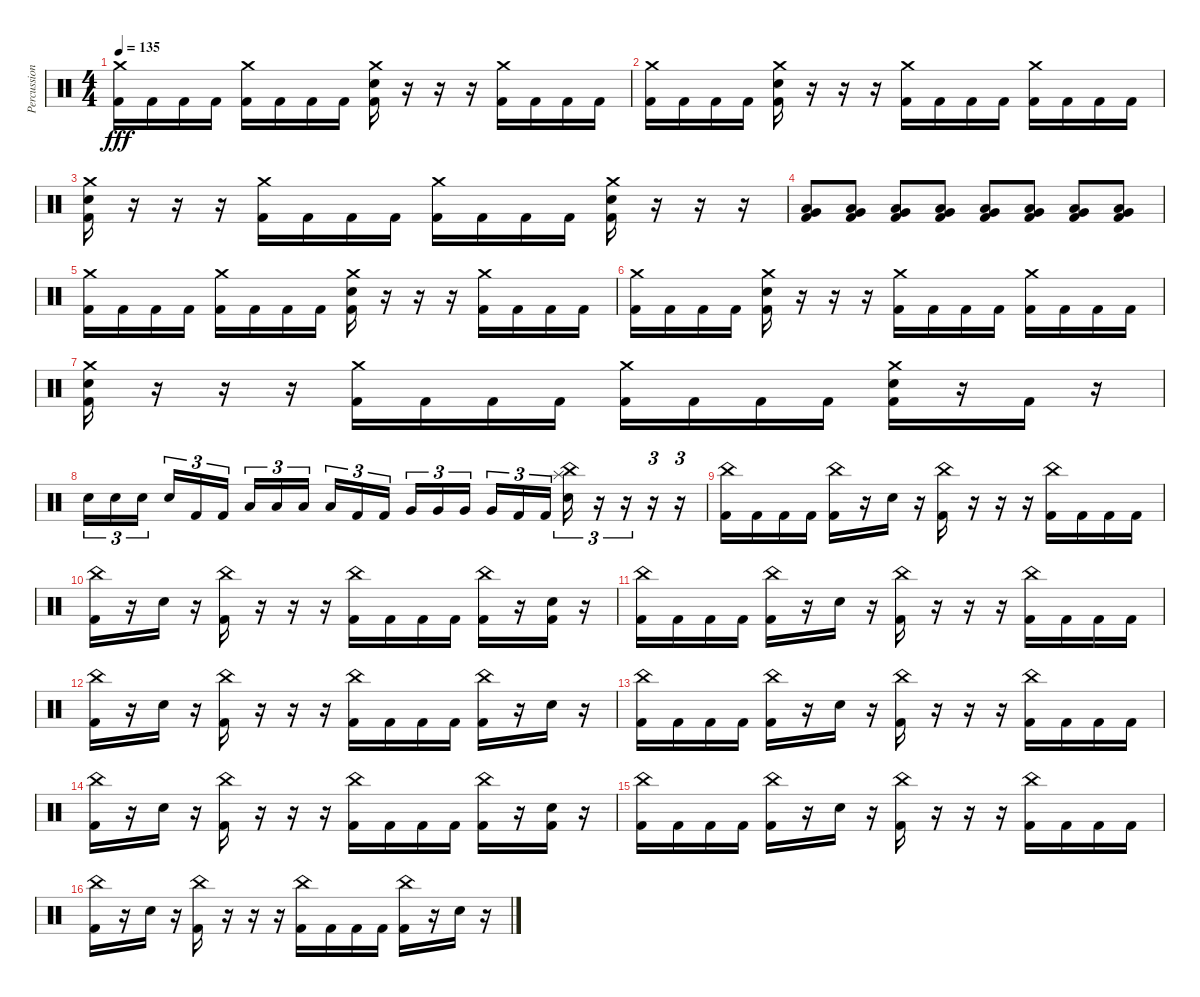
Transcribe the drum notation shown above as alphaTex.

\track ("Percussion" "Percussion") {instrument percussion}
\staff {score}
\articulation defaults
\ts (4 4)
\tempo 135
\clef neutral
\ks c
("Crash medium (hit)" "Kick (hit) 2").16{dy fff} "Kick (hit) 2".16 "Kick (hit) 2".16 "Kick (hit) 2".16 ("Crash medium (hit)" "Kick (hit) 2").16 "Kick (hit) 2".16 "Kick (hit) 2".16 "Kick (hit) 2".16 ("Crash medium (hit)" "Snare (hit) 2" "Kick (hit) 2").16 r.16 r.16 r.16 ("Crash medium (hit)" "Kick (hit) 2").16 "Kick (hit) 2".16 "Kick (hit) 2".16 "Kick (hit) 2".16 |
("Crash medium (hit)" "Kick (hit) 2").16 "Kick (hit) 2".16 "Kick (hit) 2".16 "Kick (hit) 2".16 ("Crash medium (hit)" "Snare (hit) 2" "Kick (hit) 2").16 r.16 r.16 r.16 ("Crash medium (hit)" "Kick (hit) 2").16 "Kick (hit) 2".16 "Kick (hit) 2".16 "Kick (hit) 2".16 ("Crash medium (hit)" "Kick (hit) 2").16 "Kick (hit) 2".16 "Kick (hit) 2".16 "Kick (hit) 2".16 |
("Crash medium (hit)" "Snare (hit) 2" "Kick (hit) 2").16 r.16 r.16 r.16 ("Crash medium (hit)" "Kick (hit) 2").16 "Kick (hit) 2".16 "Kick (hit) 2".16 "Kick (hit) 2".16 ("Crash medium (hit)" "Kick (hit) 2").16 "Kick (hit) 2".16 "Kick (hit) 2".16 "Kick (hit) 2".16 ("Crash medium (hit)" "Snare (hit) 2" "Kick (hit) 2").16 r.16 r.16 r.16 |
("Very Low Tom (hit)" "Low Floor Tom (hit)" "Kick (hit) 2").8 ("Very Low Tom (hit)" "Low Floor Tom (hit)" "Kick (hit) 2").8 ("Very Low Tom (hit)" "Low Floor Tom (hit)" "Kick (hit) 2").8 ("Very Low Tom (hit)" "Low Floor Tom (hit)" "Kick (hit) 2").8 ("Very Low Tom (hit)" "Low Floor Tom (hit)" "Kick (hit) 2").8 ("Very Low Tom (hit)" "Low Floor Tom (hit)" "Kick (hit) 2").8 ("Very Low Tom (hit)" "Low Floor Tom (hit)" "Kick (hit) 2").8 ("Very Low Tom (hit)" "Low Floor Tom (hit)" "Kick (hit) 2").8 |
("Crash medium (hit)" "Kick (hit) 2").16 "Kick (hit) 2".16 "Kick (hit) 2".16 "Kick (hit) 2".16 ("Crash medium (hit)" "Kick (hit) 2").16 "Kick (hit) 2".16 "Kick (hit) 2".16 "Kick (hit) 2".16 ("Crash medium (hit)" "Snare (hit) 2" "Kick (hit) 2").16 r.16 r.16 r.16 ("Crash medium (hit)" "Kick (hit) 2").16 "Kick (hit) 2".16 "Kick (hit) 2".16 "Kick (hit) 2".16 |
("Crash medium (hit)" "Kick (hit) 2").16 "Kick (hit) 2".16 "Kick (hit) 2".16 "Kick (hit) 2".16 ("Crash medium (hit)" "Snare (hit) 2" "Kick (hit) 2").16 r.16 r.16 r.16 ("Crash medium (hit)" "Kick (hit) 2").16 "Kick (hit) 2".16 "Kick (hit) 2".16 "Kick (hit) 2".16 ("Crash medium (hit)" "Kick (hit) 2").16 "Kick (hit) 2".16 "Kick (hit) 2".16 "Kick (hit) 2".16 |
("Crash medium (hit)" "Snare (hit) 2" "Kick (hit) 2").16 r.16 r.16 r.16 ("Crash medium (hit)" "Kick (hit) 2").16 "Kick (hit) 2".16 "Kick (hit) 2".16 "Kick (hit) 2".16 ("Crash medium (hit)" "Kick (hit) 2").16 "Kick (hit) 2".16 "Kick (hit) 2".16 "Kick (hit) 2".16 ("Crash medium (hit)" "Snare (hit) 2" "Kick (hit) 2").16 r.16 "Kick (hit) 2".16 r.16 |
"Snare (hit) 2".16{tu (3 2)} "Snare (hit) 2".16{tu (3 2)} "Snare (hit) 2".16{tu (3 2) beam splitsecondary} "Snare (hit) 2".16{tu (3 2)} "Kick (hit) 2".16{tu (3 2)} "Kick (hit) 2".16{tu (3 2)} "Low Tom (hit)".16{tu (3 2)} "Low Tom (hit)".16{tu (3 2)} "Low Tom (hit)".16{tu (3 2) beam splitsecondary} "Low Tom (hit)".16{tu (3 2)} "Kick (hit) 2".16{tu (3 2)} "Kick (hit) 2".16{tu (3 2)} "Very Low Tom (hit)".16{tu (3 2)} "Very Low Tom (hit)".16{tu (3 2)} "Very Low Tom (hit)".16{tu (3 2) beam splitsecondary} "Very Low Tom (hit)".16{tu (3 2)} "Kick (hit) 2".16{tu (3 2)} "Kick (hit) 2".16{tu (3 2)} ("China (hit)" "Splash (hit)" "Snare (hit) 2").16{tu (3 2)} r.16{tu (3 2)} r.16{tu (3 2)} r.16{tu (3 2)} r.16{tu (3 2)} |
("China (hit)" "Kick (hit) 2").16 "Kick (hit) 2".16 "Kick (hit) 2".16 "Kick (hit) 2".16 ("China (hit)" "Kick (hit) 2").16 r.16 "Snare (hit) 2".16 r.16 ("China (hit)" "Kick (hit) 2").16 r.16 r.16 r.16 ("China (hit)" "Kick (hit) 2").16 "Kick (hit) 2".16 "Kick (hit) 2".16 "Kick (hit) 2".16 |
("China (hit)" "Kick (hit) 2").16 r.16 "Snare (hit) 2".16 r.16 ("China (hit)" "Kick (hit) 2").16 r.16 r.16 r.16 ("China (hit)" "Kick (hit) 2").16 "Kick (hit) 2".16 "Kick (hit) 2".16 "Kick (hit) 2".16 ("China (hit)" "Kick (hit) 2").16 r.16 ("Snare (hit) 2" "Kick (hit) 2").16 r.16 |
("China (hit)" "Kick (hit) 2").16 "Kick (hit) 2".16 "Kick (hit) 2".16 "Kick (hit) 2".16 ("China (hit)" "Kick (hit) 2").16 r.16 "Snare (hit) 2".16 r.16 ("China (hit)" "Kick (hit) 2").16 r.16 r.16 r.16 ("China (hit)" "Kick (hit) 2").16 "Kick (hit) 2".16 "Kick (hit) 2".16 "Kick (hit) 2".16 |
("China (hit)" "Kick (hit) 2").16 r.16 "Snare (hit) 2".16 r.16 ("China (hit)" "Kick (hit) 2").16 r.16 r.16 r.16 ("China (hit)" "Kick (hit) 2").16 "Kick (hit) 2".16 "Kick (hit) 2".16 "Kick (hit) 2".16 ("China (hit)" "Kick (hit) 2").16 r.16 "Snare (hit) 2".16 r.16 |
("China (hit)" "Kick (hit) 2").16 "Kick (hit) 2".16 "Kick (hit) 2".16 "Kick (hit) 2".16 ("China (hit)" "Kick (hit) 2").16 r.16 "Snare (hit) 2".16 r.16 ("China (hit)" "Kick (hit) 2").16 r.16 r.16 r.16 ("China (hit)" "Kick (hit) 2").16 "Kick (hit) 2".16 "Kick (hit) 2".16 "Kick (hit) 2".16 |
("China (hit)" "Kick (hit) 2").16 r.16 "Snare (hit) 2".16 r.16 ("China (hit)" "Kick (hit) 2").16 r.16 r.16 r.16 ("China (hit)" "Kick (hit) 2").16 "Kick (hit) 2".16 "Kick (hit) 2".16 "Kick (hit) 2".16 ("China (hit)" "Kick (hit) 2").16 r.16 ("Snare (hit) 2" "Kick (hit) 2").16 r.16 |
("China (hit)" "Kick (hit) 2").16 "Kick (hit) 2".16 "Kick (hit) 2".16 "Kick (hit) 2".16 ("China (hit)" "Kick (hit) 2").16 r.16 "Snare (hit) 2".16 r.16 ("China (hit)" "Kick (hit) 2").16 r.16 r.16 r.16 ("China (hit)" "Kick (hit) 2").16 "Kick (hit) 2".16 "Kick (hit) 2".16 "Kick (hit) 2".16 |
("China (hit)" "Kick (hit) 2").16 r.16 "Snare (hit) 2".16 r.16 ("China (hit)" "Kick (hit) 2").16 r.16 r.16 r.16 ("China (hit)" "Kick (hit) 2").16 "Kick (hit) 2".16 "Kick (hit) 2".16 "Kick (hit) 2".16 ("China (hit)" "Kick (hit) 2").16 r.16 "Snare (hit) 2".16 r.16
